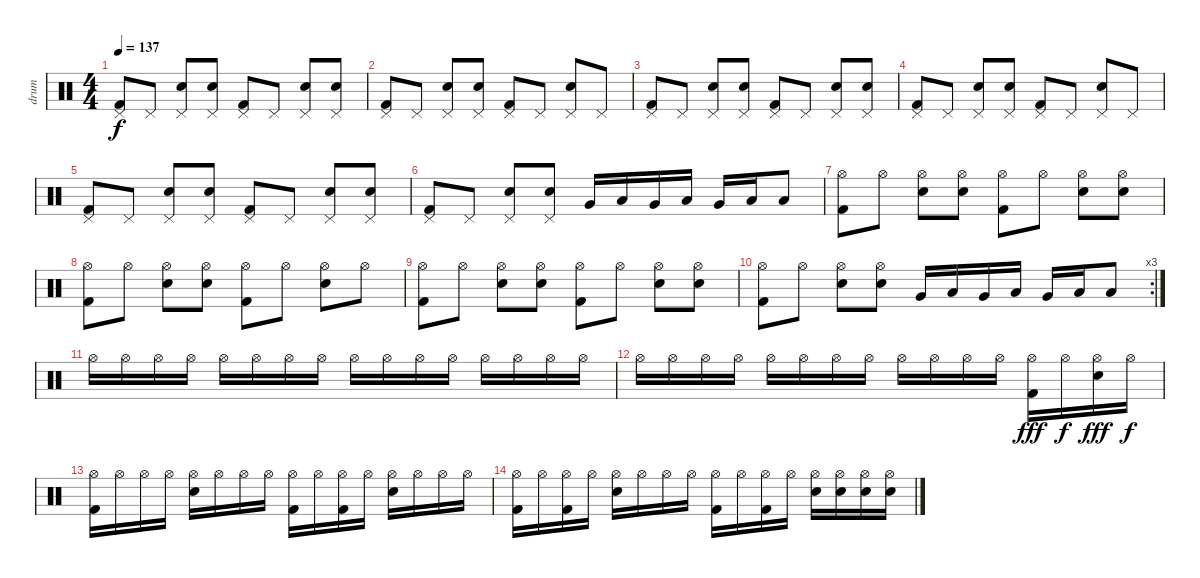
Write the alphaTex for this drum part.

\track ("drum" "drum") {instrument percussion}
\staff {score}
\articulation defaults
\ts (4 4)
\tempo 137
\clef neutral
\ks c
("Pedal Hi-Hat (hit)" "Kick (hit) 2").8{dy f} "Pedal Hi-Hat (hit)".8 ("Pedal Hi-Hat (hit)" "Electric Snare (hit)").8 ("Pedal Hi-Hat (hit)" "Electric Snare (hit)").8 ("Pedal Hi-Hat (hit)" "Kick (hit) 2").8 "Pedal Hi-Hat (hit)".8 ("Pedal Hi-Hat (hit)" "Electric Snare (hit)").8 ("Pedal Hi-Hat (hit)" "Electric Snare (hit)").8 |
("Pedal Hi-Hat (hit)" "Kick (hit) 2").8 "Pedal Hi-Hat (hit)".8 ("Pedal Hi-Hat (hit)" "Electric Snare (hit)").8 ("Pedal Hi-Hat (hit)" "Electric Snare (hit)").8 ("Pedal Hi-Hat (hit)" "Kick (hit) 2").8 "Pedal Hi-Hat (hit)".8 ("Pedal Hi-Hat (hit)" "Electric Snare (hit)").8 "Pedal Hi-Hat (hit)".8 |
("Pedal Hi-Hat (hit)" "Kick (hit) 2").8 "Pedal Hi-Hat (hit)".8 ("Pedal Hi-Hat (hit)" "Electric Snare (hit)").8 ("Pedal Hi-Hat (hit)" "Electric Snare (hit)").8 ("Pedal Hi-Hat (hit)" "Kick (hit) 2").8 "Pedal Hi-Hat (hit)".8 ("Pedal Hi-Hat (hit)" "Electric Snare (hit)").8 ("Pedal Hi-Hat (hit)" "Electric Snare (hit)").8 |
("Pedal Hi-Hat (hit)" "Kick (hit) 2").8 "Pedal Hi-Hat (hit)".8 ("Pedal Hi-Hat (hit)" "Electric Snare (hit)").8 ("Pedal Hi-Hat (hit)" "Electric Snare (hit)").8 ("Pedal Hi-Hat (hit)" "Kick (hit) 2").8 "Pedal Hi-Hat (hit)".8 ("Pedal Hi-Hat (hit)" "Electric Snare (hit)").8 "Pedal Hi-Hat (hit)".8 |
("Pedal Hi-Hat (hit)" "Kick (hit) 2").8 "Pedal Hi-Hat (hit)".8 ("Pedal Hi-Hat (hit)" "Electric Snare (hit)").8 ("Pedal Hi-Hat (hit)" "Electric Snare (hit)").8 ("Pedal Hi-Hat (hit)" "Kick (hit) 2").8 "Pedal Hi-Hat (hit)".8 ("Pedal Hi-Hat (hit)" "Electric Snare (hit)").8 ("Pedal Hi-Hat (hit)" "Electric Snare (hit)").8 |
("Pedal Hi-Hat (hit)" "Kick (hit) 2").8 "Pedal Hi-Hat (hit)".8 ("Pedal Hi-Hat (hit)" "Electric Snare (hit)").8 ("Pedal Hi-Hat (hit)" "Electric Snare (hit)").8 "Very Low Tom (hit)".16 "Low Tom (hit)".16 "Very Low Tom (hit)".16 "Low Tom (hit)".16 "Very Low Tom (hit)".16 "Low Tom (hit)".16 "Low Floor Tom (hit)".8 |
("Hi-Hat (open)" "Kick (hit) 2").8 "Hi-Hat (open)".8 ("Hi-Hat (open)" "Electric Snare (hit)").8 ("Hi-Hat (open)" "Electric Snare (hit)").8 ("Hi-Hat (open)" "Kick (hit) 2").8 "Hi-Hat (open)".8 ("Hi-Hat (open)" "Electric Snare (hit)").8 ("Hi-Hat (open)" "Electric Snare (hit)").8 |
("Hi-Hat (open)" "Kick (hit) 2").8 "Hi-Hat (open)".8 ("Hi-Hat (open)" "Electric Snare (hit)").8 ("Hi-Hat (open)" "Electric Snare (hit)").8 ("Hi-Hat (open)" "Kick (hit) 2").8 "Hi-Hat (open)".8 ("Hi-Hat (open)" "Electric Snare (hit)").8 "Hi-Hat (open)".8 |
("Hi-Hat (open)" "Kick (hit) 2").8 "Hi-Hat (open)".8 ("Hi-Hat (open)" "Electric Snare (hit)").8 ("Hi-Hat (open)" "Electric Snare (hit)").8 ("Hi-Hat (open)" "Kick (hit) 2").8 "Hi-Hat (open)".8 ("Hi-Hat (open)" "Electric Snare (hit)").8 ("Hi-Hat (open)" "Electric Snare (hit)").8 |
\rc 3
("Hi-Hat (open)" "Kick (hit) 2").8 "Hi-Hat (open)".8 ("Hi-Hat (open)" "Electric Snare (hit)").8 ("Hi-Hat (open)" "Electric Snare (hit)").8 "Very Low Tom (hit)".16 "Low Tom (hit)".16 "Very Low Tom (hit)".16 "Low Tom (hit)".16 "Very Low Tom (hit)".16 "Low Tom (hit)".16 "Low Floor Tom (hit)".8 |
"Hi-Hat (open)".16 "Hi-Hat (open)".16 "Hi-Hat (open)".16 "Hi-Hat (open)".16 "Hi-Hat (open)".16 "Hi-Hat (open)".16 "Hi-Hat (open)".16 "Hi-Hat (open)".16 "Hi-Hat (open)".16 "Hi-Hat (open)".16 "Hi-Hat (open)".16 "Hi-Hat (open)".16 "Hi-Hat (open)".16 "Hi-Hat (open)".16 "Hi-Hat (open)".16 "Hi-Hat (open)".16 |
"Hi-Hat (open)".16 "Hi-Hat (open)".16 "Hi-Hat (open)".16 "Hi-Hat (open)".16 "Hi-Hat (open)".16 "Hi-Hat (open)".16 "Hi-Hat (open)".16 "Hi-Hat (open)".16 "Hi-Hat (open)".16 "Hi-Hat (open)".16 "Hi-Hat (open)".16 "Hi-Hat (open)".16 ("Hi-Hat (open)" "Kick (hit) 2").16{dy fff} "Hi-Hat (open)".16{dy f} ("Hi-Hat (open)" "Electric Snare (hit)").16{dy fff} "Hi-Hat (open)".16{dy f} |
("Hi-Hat (open)" "Kick (hit) 2").16 "Hi-Hat (open)".16 "Hi-Hat (open)".16 "Hi-Hat (open)".16 ("Hi-Hat (open)" "Electric Snare (hit)").16 "Hi-Hat (open)".16 "Hi-Hat (open)".16 "Hi-Hat (open)".16 ("Hi-Hat (open)" "Kick (hit) 2").16 "Hi-Hat (open)".16 ("Hi-Hat (open)" "Kick (hit) 2").16 "Hi-Hat (open)".16 ("Hi-Hat (open)" "Electric Snare (hit)").16 "Hi-Hat (open)".16 "Hi-Hat (open)".16 "Hi-Hat (open)".16 |
("Hi-Hat (open)" "Kick (hit) 2").16 "Hi-Hat (open)".16 ("Hi-Hat (open)" "Kick (hit) 2").16 "Hi-Hat (open)".16 ("Hi-Hat (open)" "Electric Snare (hit)").16 "Hi-Hat (open)".16 "Hi-Hat (open)".16 "Hi-Hat (open)".16 ("Hi-Hat (open)" "Kick (hit) 2").16 "Hi-Hat (open)".16 ("Hi-Hat (open)" "Kick (hit) 2").16 "Hi-Hat (open)".16 ("Hi-Hat (open)" "Electric Snare (hit)").16 ("Hi-Hat (open)" "Electric Snare (hit)").16 ("Hi-Hat (open)" "Electric Snare (hit)").16 ("Hi-Hat (open)" "Electric Snare (hit)").16
